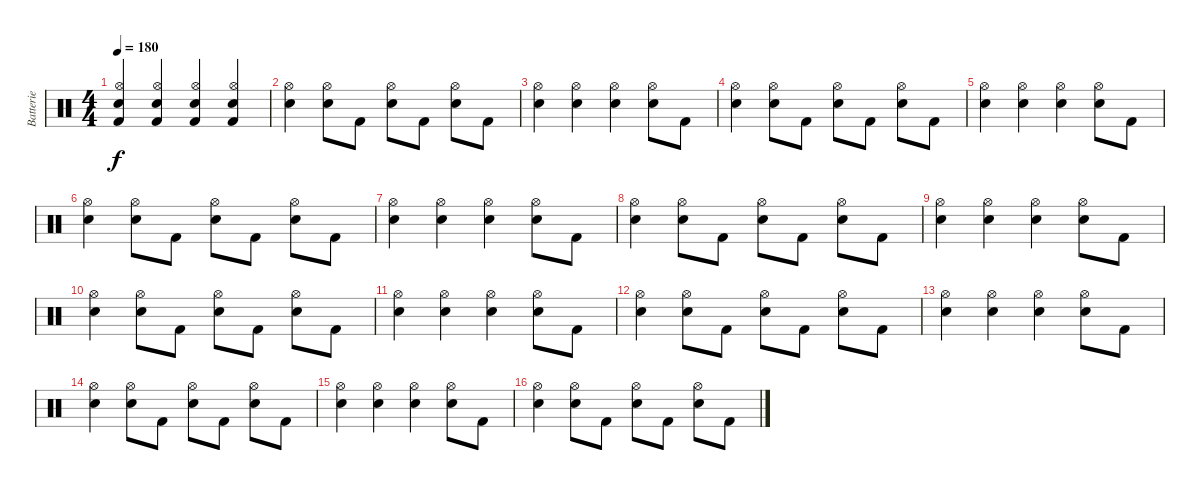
\track ("Batterie" "Batterie") {instrument percussion}
\staff {score}
\articulation defaults
\ts (4 4)
\tempo 180
\clef neutral
\ks c
("Electric Snare (hit)" "Hi-Hat (open)" "Kick (hit) 2").4{dy f} ("Electric Snare (hit)" "Hi-Hat (open)" "Kick (hit) 2").4 ("Electric Snare (hit)" "Hi-Hat (open)" "Kick (hit) 2").4 ("Electric Snare (hit)" "Hi-Hat (open)" "Kick (hit) 2").4 |
("Electric Snare (hit)" "Hi-Hat (open)").4 ("Electric Snare (hit)" "Hi-Hat (open)").8 "Kick (hit) 2".8 ("Electric Snare (hit)" "Hi-Hat (open)").8 "Kick (hit) 2".8 ("Electric Snare (hit)" "Hi-Hat (open)").8 "Kick (hit) 2".8 |
("Electric Snare (hit)" "Hi-Hat (open)").4 ("Electric Snare (hit)" "Hi-Hat (open)").4 ("Electric Snare (hit)" "Hi-Hat (open)").4 ("Electric Snare (hit)" "Hi-Hat (open)").8 "Kick (hit) 2".8 |
("Electric Snare (hit)" "Hi-Hat (open)").4 ("Electric Snare (hit)" "Hi-Hat (open)").8 "Kick (hit) 2".8 ("Electric Snare (hit)" "Hi-Hat (open)").8 "Kick (hit) 2".8 ("Electric Snare (hit)" "Hi-Hat (open)").8 "Kick (hit) 2".8 |
("Electric Snare (hit)" "Hi-Hat (open)").4 ("Electric Snare (hit)" "Hi-Hat (open)").4 ("Electric Snare (hit)" "Hi-Hat (open)").4 ("Electric Snare (hit)" "Hi-Hat (open)").8 "Kick (hit) 2".8 |
("Electric Snare (hit)" "Hi-Hat (open)").4 ("Electric Snare (hit)" "Hi-Hat (open)").8 "Kick (hit) 2".8 ("Electric Snare (hit)" "Hi-Hat (open)").8 "Kick (hit) 2".8 ("Electric Snare (hit)" "Hi-Hat (open)").8 "Kick (hit) 2".8 |
("Electric Snare (hit)" "Hi-Hat (open)").4 ("Electric Snare (hit)" "Hi-Hat (open)").4 ("Electric Snare (hit)" "Hi-Hat (open)").4 ("Electric Snare (hit)" "Hi-Hat (open)").8 "Kick (hit) 2".8 |
("Electric Snare (hit)" "Hi-Hat (open)").4 ("Electric Snare (hit)" "Hi-Hat (open)").8 "Kick (hit) 2".8 ("Electric Snare (hit)" "Hi-Hat (open)").8 "Kick (hit) 2".8 ("Electric Snare (hit)" "Hi-Hat (open)").8 "Kick (hit) 2".8 |
("Electric Snare (hit)" "Hi-Hat (open)").4 ("Electric Snare (hit)" "Hi-Hat (open)").4 ("Electric Snare (hit)" "Hi-Hat (open)").4 ("Electric Snare (hit)" "Hi-Hat (open)").8 "Kick (hit) 2".8 |
("Electric Snare (hit)" "Hi-Hat (open)").4 ("Electric Snare (hit)" "Hi-Hat (open)").8 "Kick (hit) 2".8 ("Electric Snare (hit)" "Hi-Hat (open)").8 "Kick (hit) 2".8 ("Electric Snare (hit)" "Hi-Hat (open)").8 "Kick (hit) 2".8 |
("Electric Snare (hit)" "Hi-Hat (open)").4 ("Electric Snare (hit)" "Hi-Hat (open)").4 ("Electric Snare (hit)" "Hi-Hat (open)").4 ("Electric Snare (hit)" "Hi-Hat (open)").8 "Kick (hit) 2".8 |
("Electric Snare (hit)" "Hi-Hat (open)").4 ("Electric Snare (hit)" "Hi-Hat (open)").8 "Kick (hit) 2".8 ("Electric Snare (hit)" "Hi-Hat (open)").8 "Kick (hit) 2".8 ("Electric Snare (hit)" "Hi-Hat (open)").8 "Kick (hit) 2".8 |
("Electric Snare (hit)" "Hi-Hat (open)").4 ("Electric Snare (hit)" "Hi-Hat (open)").4 ("Electric Snare (hit)" "Hi-Hat (open)").4 ("Electric Snare (hit)" "Hi-Hat (open)").8 "Kick (hit) 2".8 |
("Electric Snare (hit)" "Hi-Hat (open)").4 ("Electric Snare (hit)" "Hi-Hat (open)").8 "Kick (hit) 2".8 ("Electric Snare (hit)" "Hi-Hat (open)").8 "Kick (hit) 2".8 ("Electric Snare (hit)" "Hi-Hat (open)").8 "Kick (hit) 2".8 |
("Electric Snare (hit)" "Hi-Hat (open)").4 ("Electric Snare (hit)" "Hi-Hat (open)").4 ("Electric Snare (hit)" "Hi-Hat (open)").4 ("Electric Snare (hit)" "Hi-Hat (open)").8 "Kick (hit) 2".8 |
("Electric Snare (hit)" "Hi-Hat (open)").4 ("Electric Snare (hit)" "Hi-Hat (open)").8 "Kick (hit) 2".8 ("Electric Snare (hit)" "Hi-Hat (open)").8 "Kick (hit) 2".8 ("Electric Snare (hit)" "Hi-Hat (open)").8 "Kick (hit) 2".8
